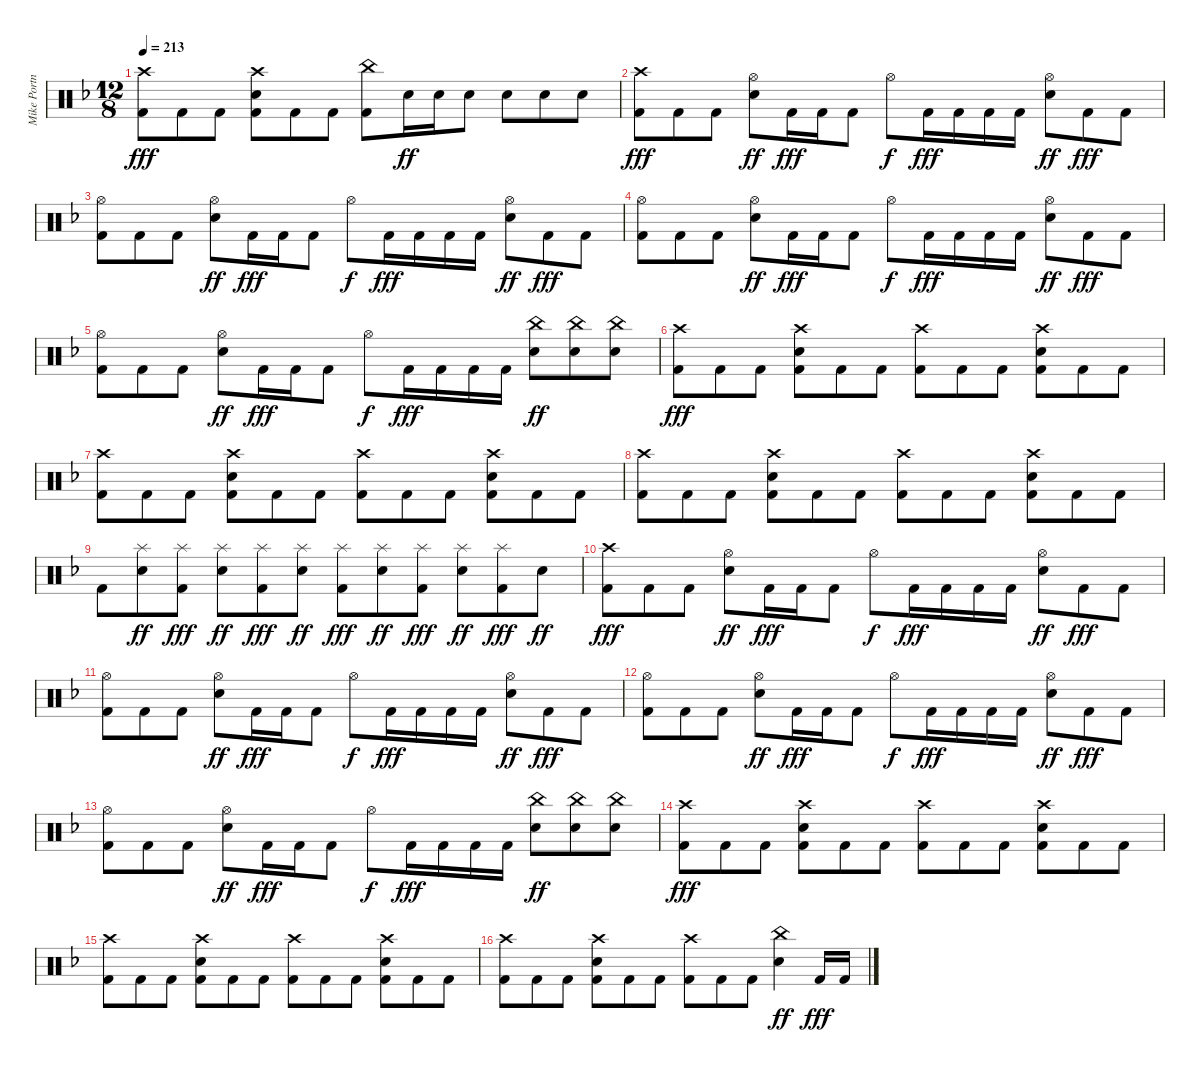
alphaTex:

\track ("Mike Portnoy Drums" "Mike Portn") {instrument percussion}
\staff {score}
\articulation defaults
\ts (12 8)
\tempo 213
\clef neutral
\ks dminor
("Crash high (hit)" "Kick (hit) 2").8{dy fff} "Kick (hit) 2".8 "Kick (hit) 2".8 ("Crash high (hit)" "Electric Snare (hit)" "Kick (hit) 2").8 "Kick (hit) 2".8 "Kick (hit) 2".8 ("China (hit)" "Kick (hit) 2").8 "Electric Snare (hit)".16{dy ff} "Electric Snare (hit)".16 "Electric Snare (hit)".8 "Electric Snare (hit)".8 "Electric Snare (hit)".8 "Electric Snare (hit)".8 |
("Crash high (hit)" "Kick (hit) 2").8{dy fff} "Kick (hit) 2".8 "Kick (hit) 2".8 ("Hi-Hat (open)" "Electric Snare (hit)").8{dy ff} "Kick (hit) 2".16{dy fff} "Kick (hit) 2".16 "Kick (hit) 2".8 "Hi-Hat (open)".8{dy f} "Kick (hit) 2".16{dy fff} "Kick (hit) 2".16 "Kick (hit) 2".16 "Kick (hit) 2".16 ("Hi-Hat (open)" "Electric Snare (hit)").8{dy ff} "Kick (hit) 2".8{dy fff} "Kick (hit) 2".8 |
("Hi-Hat (open)" "Kick (hit) 2").8 "Kick (hit) 2".8 "Kick (hit) 2".8 ("Hi-Hat (open)" "Electric Snare (hit)").8{dy ff} "Kick (hit) 2".16{dy fff} "Kick (hit) 2".16 "Kick (hit) 2".8 "Hi-Hat (open)".8{dy f} "Kick (hit) 2".16{dy fff} "Kick (hit) 2".16 "Kick (hit) 2".16 "Kick (hit) 2".16 ("Hi-Hat (open)" "Electric Snare (hit)").8{dy ff} "Kick (hit) 2".8{dy fff} "Kick (hit) 2".8 |
("Hi-Hat (open)" "Kick (hit) 2").8 "Kick (hit) 2".8 "Kick (hit) 2".8 ("Hi-Hat (open)" "Electric Snare (hit)").8{dy ff} "Kick (hit) 2".16{dy fff} "Kick (hit) 2".16 "Kick (hit) 2".8 "Hi-Hat (open)".8{dy f} "Kick (hit) 2".16{dy fff} "Kick (hit) 2".16 "Kick (hit) 2".16 "Kick (hit) 2".16 ("Hi-Hat (open)" "Electric Snare (hit)").8{dy ff} "Kick (hit) 2".8{dy fff} "Kick (hit) 2".8 |
("Hi-Hat (open)" "Kick (hit) 2").8 "Kick (hit) 2".8 "Kick (hit) 2".8 ("Hi-Hat (open)" "Electric Snare (hit)").8{dy ff} "Kick (hit) 2".16{dy fff} "Kick (hit) 2".16 "Kick (hit) 2".8 "Hi-Hat (open)".8{dy f} "Kick (hit) 2".16{dy fff} "Kick (hit) 2".16 "Kick (hit) 2".16 "Kick (hit) 2".16 ("China (hit)" "Electric Snare (hit)").8{dy ff} ("China (hit)" "Electric Snare (hit)").8 ("China (hit)" "Electric Snare (hit)").8 |
("Crash high (hit)" "Kick (hit) 2").8{dy fff} "Kick (hit) 2".8 "Kick (hit) 2".8 ("Crash high (hit)" "Electric Snare (hit)" "Kick (hit) 2").8 "Kick (hit) 2".8 "Kick (hit) 2".8 ("Crash high (hit)" "Kick (hit) 2").8 "Kick (hit) 2".8 "Kick (hit) 2".8 ("Crash high (hit)" "Electric Snare (hit)" "Kick (hit) 2").8 "Kick (hit) 2".8 "Kick (hit) 2".8 |
("Crash high (hit)" "Kick (hit) 2").8 "Kick (hit) 2".8 "Kick (hit) 2".8 ("Crash high (hit)" "Electric Snare (hit)" "Kick (hit) 2").8 "Kick (hit) 2".8 "Kick (hit) 2".8 ("Crash high (hit)" "Kick (hit) 2").8 "Kick (hit) 2".8 "Kick (hit) 2".8 ("Crash high (hit)" "Electric Snare (hit)" "Kick (hit) 2").8 "Kick (hit) 2".8 "Kick (hit) 2".8 |
("Crash high (hit)" "Kick (hit) 2").8 "Kick (hit) 2".8 "Kick (hit) 2".8 ("Crash high (hit)" "Electric Snare (hit)" "Kick (hit) 2").8 "Kick (hit) 2".8 "Kick (hit) 2".8 ("Crash high (hit)" "Kick (hit) 2").8 "Kick (hit) 2".8 "Kick (hit) 2".8 ("Crash high (hit)" "Electric Snare (hit)" "Kick (hit) 2").8 "Kick (hit) 2".8 "Kick (hit) 2".8 |
"Kick (hit) 2".8 ("Splash (hit)" "Electric Snare (hit)").8{dy ff} ("Splash (hit)" "Kick (hit) 2").8{dy fff} ("Splash (hit)" "Electric Snare (hit)").8{dy ff} ("Splash (hit)" "Kick (hit) 2").8{dy fff} ("Splash (hit)" "Electric Snare (hit)").8{dy ff} ("Splash (hit)" "Kick (hit) 2").8{dy fff} ("Splash (hit)" "Electric Snare (hit)").8{dy ff} ("Splash (hit)" "Kick (hit) 2").8{dy fff} ("Splash (hit)" "Electric Snare (hit)").8{dy ff} ("Splash (hit)" "Kick (hit) 2").8{dy fff} "Electric Snare (hit)".8{dy ff} |
("Crash high (hit)" "Kick (hit) 2").8{dy fff} "Kick (hit) 2".8 "Kick (hit) 2".8 ("Hi-Hat (open)" "Electric Snare (hit)").8{dy ff} "Kick (hit) 2".16{dy fff} "Kick (hit) 2".16 "Kick (hit) 2".8 "Hi-Hat (open)".8{dy f} "Kick (hit) 2".16{dy fff} "Kick (hit) 2".16 "Kick (hit) 2".16 "Kick (hit) 2".16 ("Hi-Hat (open)" "Electric Snare (hit)").8{dy ff} "Kick (hit) 2".8{dy fff} "Kick (hit) 2".8 |
("Hi-Hat (open)" "Kick (hit) 2").8 "Kick (hit) 2".8 "Kick (hit) 2".8 ("Hi-Hat (open)" "Electric Snare (hit)").8{dy ff} "Kick (hit) 2".16{dy fff} "Kick (hit) 2".16 "Kick (hit) 2".8 "Hi-Hat (open)".8{dy f} "Kick (hit) 2".16{dy fff} "Kick (hit) 2".16 "Kick (hit) 2".16 "Kick (hit) 2".16 ("Hi-Hat (open)" "Electric Snare (hit)").8{dy ff} "Kick (hit) 2".8{dy fff} "Kick (hit) 2".8 |
("Hi-Hat (open)" "Kick (hit) 2").8 "Kick (hit) 2".8 "Kick (hit) 2".8 ("Hi-Hat (open)" "Electric Snare (hit)").8{dy ff} "Kick (hit) 2".16{dy fff} "Kick (hit) 2".16 "Kick (hit) 2".8 "Hi-Hat (open)".8{dy f} "Kick (hit) 2".16{dy fff} "Kick (hit) 2".16 "Kick (hit) 2".16 "Kick (hit) 2".16 ("Hi-Hat (open)" "Electric Snare (hit)").8{dy ff} "Kick (hit) 2".8{dy fff} "Kick (hit) 2".8 |
("Hi-Hat (open)" "Kick (hit) 2").8 "Kick (hit) 2".8 "Kick (hit) 2".8 ("Hi-Hat (open)" "Electric Snare (hit)").8{dy ff} "Kick (hit) 2".16{dy fff} "Kick (hit) 2".16 "Kick (hit) 2".8 "Hi-Hat (open)".8{dy f} "Kick (hit) 2".16{dy fff} "Kick (hit) 2".16 "Kick (hit) 2".16 "Kick (hit) 2".16 ("China (hit)" "Electric Snare (hit)").8{dy ff} ("China (hit)" "Electric Snare (hit)").8 ("China (hit)" "Electric Snare (hit)").8 |
("Crash high (hit)" "Kick (hit) 2").8{dy fff} "Kick (hit) 2".8 "Kick (hit) 2".8 ("Crash high (hit)" "Electric Snare (hit)" "Kick (hit) 2").8 "Kick (hit) 2".8 "Kick (hit) 2".8 ("Crash high (hit)" "Kick (hit) 2").8 "Kick (hit) 2".8 "Kick (hit) 2".8 ("Crash high (hit)" "Electric Snare (hit)" "Kick (hit) 2").8 "Kick (hit) 2".8 "Kick (hit) 2".8 |
("Crash high (hit)" "Kick (hit) 2").8 "Kick (hit) 2".8 "Kick (hit) 2".8 ("Crash high (hit)" "Electric Snare (hit)" "Kick (hit) 2").8 "Kick (hit) 2".8 "Kick (hit) 2".8 ("Crash high (hit)" "Kick (hit) 2").8 "Kick (hit) 2".8 "Kick (hit) 2".8 ("Crash high (hit)" "Electric Snare (hit)" "Kick (hit) 2").8 "Kick (hit) 2".8 "Kick (hit) 2".8 |
("Crash high (hit)" "Kick (hit) 2").8 "Kick (hit) 2".8 "Kick (hit) 2".8 ("Crash high (hit)" "Electric Snare (hit)" "Kick (hit) 2").8 "Kick (hit) 2".8 "Kick (hit) 2".8 ("Crash high (hit)" "Kick (hit) 2").8 "Kick (hit) 2".8 "Kick (hit) 2".8 ("China (hit)" "Electric Snare (hit)").4{dy ff} "Kick (hit) 2".16{dy fff} "Kick (hit) 2".16
